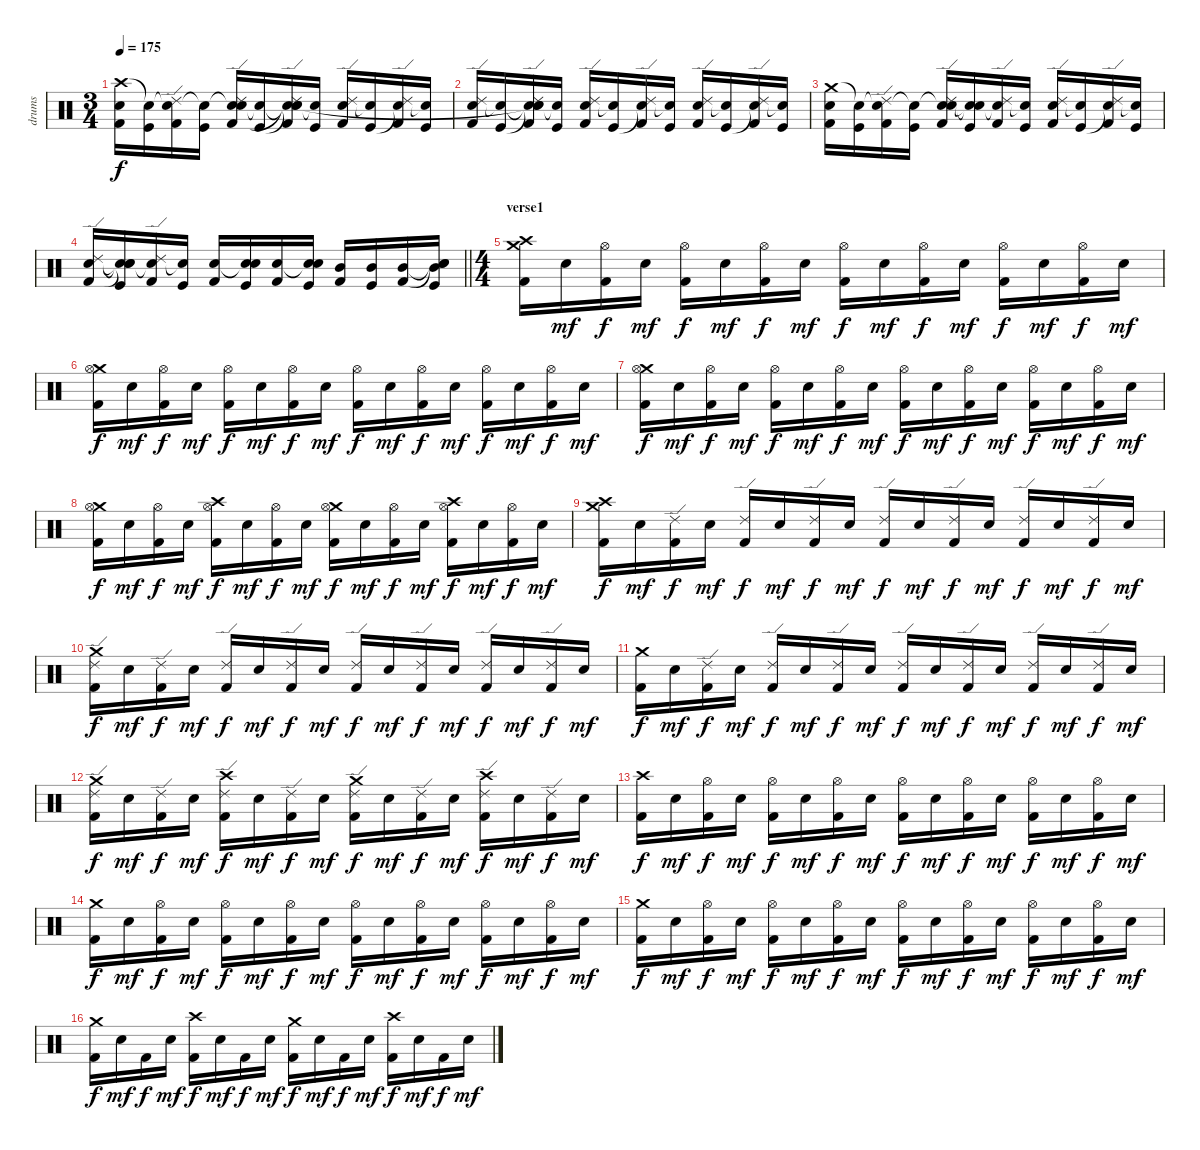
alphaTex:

\track ("drums" "drums") {instrument percussion}
\staff {score}
\articulation defaults
\ts (3 4)
\tempo 175
\clef neutral
\ks c
("Crash high (hit)" "Snare (hit) 2" "Kick (hit) 2").16{dy f} ("Snare (hit)"{t} "Kick (hit)").16 ("Snare (hit)"{t} "Ride (edge) 2" "Kick (hit) 2").16 ("Snare (hit)"{t} "Kick (hit)").16 ("Snare (hit)"{t} "Ride (edge) 2" "Snare (hit) 2" "Kick (hit) 2").16 ("Snare (hit)"{t} "Kick (hit)").16 ("Snare (hit)"{t} "Snare (hit)"{t} "Ride (edge) 2" "Snare (hit)"{t} "Kick (hit) 2").16 ("Snare (hit)"{t} "Kick (hit)").16 ("Ride (edge) 2" "Snare (hit) 2" "Kick (hit) 2").16 ("Snare (hit)"{t} "Kick (hit)").16 ("Ride (edge) 2" "Snare (hit)"{t} "Kick (hit) 2").16 ("Snare (hit)"{t} "Kick (hit)").16 |
("Ride (edge) 2" "Snare (hit) 2" "Kick (hit) 2").16 ("Snare (hit)"{t} "Kick (hit)").16 ("Snare (hit)"{t} "Snare (hit)"{t} "Ride (edge) 2" "Snare (hit)"{t} "Kick (hit) 2").16 ("Snare (hit)"{t} "Kick (hit)").16 ("Ride (edge) 2" "Snare (hit) 2" "Kick (hit) 2").16 ("Snare (hit)"{t} "Kick (hit)").16 ("Ride (edge) 2" "Snare (hit)"{t} "Kick (hit) 2").16 ("Snare (hit)"{t} "Kick (hit)").16 ("Ride (edge) 2" "Snare (hit) 2" "Kick (hit) 2").16 ("Snare (hit)"{t} "Kick (hit)").16 ("Ride (edge) 2" "Snare (hit)"{t} "Kick (hit) 2").16 ("Snare (hit)"{t} "Kick (hit)").16 |
("Crash medium (hit)" "Snare (hit) 2" "Kick (hit) 2").16 ("Snare (hit)"{t} "Kick (hit)").16 ("Snare (hit)"{t} "Ride (edge) 2" "Kick (hit) 2").16 ("Snare (hit)"{t} "Kick (hit)").16 ("Snare (hit)"{t} "Ride (edge) 2" "Snare (hit) 2" "Kick (hit) 2").16 ("Snare (hit)"{t} "Snare (hit)"{t} "Kick (hit)").16 ("Ride (edge) 2" "Snare (hit)"{t} "Kick (hit) 2").16 ("Snare (hit)"{t} "Kick (hit)").16 ("Ride (edge) 2" "Snare (hit) 2" "Kick (hit) 2").16 ("Snare (hit)"{t} "Kick (hit)").16 ("Ride (edge) 2" "Snare (hit)"{t} "Kick (hit) 2").16 ("Snare (hit)"{t} "Kick (hit)").16 |
\barLineRight lightlight
("Ride (edge) 2" "Snare (hit) 2" "Kick (hit) 2").16 ("Snare (hit)"{t} "Snare (hit)"{t} "Snare (hit)"{t} "Kick (hit)").16 ("Ride (edge) 2" "Snare (hit)"{t} "Kick (hit) 2").16 ("Snare (hit)"{t} "Kick (hit)").16 ("Snare (hit) 2" "Kick (hit) 2").16 ("Snare (hit)"{t} "Snare (hit) 2" "Kick (hit)").16 ("Snare (hit) 2" "Kick (hit) 2").16 ("Snare (hit)"{t} "Snare (hit) 2" "Kick (hit)").16 ("Mid Tom (hit)" "Kick (hit) 2").16 ("Mid Tom (hit)" "Kick (hit)").16 ("Mid Tom (hit)" "Kick (hit) 2").16 ("Snare (hit)"{t} "Snare (hit)"{t} "Mid Tom (hit)" "Kick (hit)").16 |
\ts (4 4)
\section ("" "verse1")
("Crash high (hit)" "Crash medium (hit)" "Kick (hit) 2").16 "Electric Snare (hit)".16{dy mf} ("Hi-Hat (open)" "Kick (hit) 2").16{dy f} "Electric Snare (hit)".16{dy mf} ("Hi-Hat (open)" "Kick (hit) 2").16{dy f} "Electric Snare (hit)".16{dy mf} ("Hi-Hat (open)" "Kick (hit) 2").16{dy f} "Electric Snare (hit)".16{dy mf} ("Hi-Hat (open)" "Kick (hit) 2").16{dy f} "Electric Snare (hit)".16{dy mf} ("Hi-Hat (open)" "Kick (hit) 2").16{dy f} "Electric Snare (hit)".16{dy mf} ("Hi-Hat (open)" "Kick (hit) 2").16{dy f} "Electric Snare (hit)".16{dy mf} ("Hi-Hat (open)" "Kick (hit) 2").16{dy f} "Electric Snare (hit)".16{dy mf} |
("Crash medium (hit)" "Hi-Hat (open)" "Kick (hit) 2").16{dy f} "Electric Snare (hit)".16{dy mf} ("Hi-Hat (open)" "Kick (hit) 2").16{dy f} "Electric Snare (hit)".16{dy mf} ("Hi-Hat (open)" "Kick (hit) 2").16{dy f} "Electric Snare (hit)".16{dy mf} ("Hi-Hat (open)" "Kick (hit) 2").16{dy f} "Electric Snare (hit)".16{dy mf} ("Hi-Hat (open)" "Kick (hit) 2").16{dy f} "Electric Snare (hit)".16{dy mf} ("Hi-Hat (open)" "Kick (hit) 2").16{dy f} "Electric Snare (hit)".16{dy mf} ("Hi-Hat (open)" "Kick (hit) 2").16{dy f} "Electric Snare (hit)".16{dy mf} ("Hi-Hat (open)" "Kick (hit) 2").16{dy f} "Electric Snare (hit)".16{dy mf} |
("Crash medium (hit)" "Hi-Hat (open)" "Kick (hit) 2").16{dy f} "Electric Snare (hit)".16{dy mf} ("Hi-Hat (open)" "Kick (hit) 2").16{dy f} "Electric Snare (hit)".16{dy mf} ("Hi-Hat (open)" "Kick (hit) 2").16{dy f} "Electric Snare (hit)".16{dy mf} ("Hi-Hat (open)" "Kick (hit) 2").16{dy f} "Electric Snare (hit)".16{dy mf} ("Hi-Hat (open)" "Kick (hit) 2").16{dy f} "Electric Snare (hit)".16{dy mf} ("Hi-Hat (open)" "Kick (hit) 2").16{dy f} "Electric Snare (hit)".16{dy mf} ("Hi-Hat (open)" "Kick (hit) 2").16{dy f} "Electric Snare (hit)".16{dy mf} ("Hi-Hat (open)" "Kick (hit) 2").16{dy f} "Electric Snare (hit)".16{dy mf} |
("Crash medium (hit)" "Hi-Hat (open)" "Kick (hit) 2").16{dy f} "Electric Snare (hit)".16{dy mf} ("Hi-Hat (open)" "Kick (hit) 2").16{dy f} "Electric Snare (hit)".16{dy mf} ("Crash high (hit)" "Hi-Hat (open)" "Kick (hit) 2").16{dy f} "Electric Snare (hit)".16{dy mf} ("Hi-Hat (open)" "Kick (hit) 2").16{dy f} "Electric Snare (hit)".16{dy mf} ("Crash medium (hit)" "Hi-Hat (open)" "Kick (hit) 2").16{dy f} "Electric Snare (hit)".16{dy mf} ("Hi-Hat (open)" "Kick (hit) 2").16{dy f} "Electric Snare (hit)".16{dy mf} ("Crash high (hit)" "Hi-Hat (open)" "Kick (hit) 2").16{dy f} "Electric Snare (hit)".16{dy mf} ("Hi-Hat (open)" "Kick (hit) 2").16{dy f} "Electric Snare (hit)".16{dy mf} |
("Crash high (hit)" "Crash medium (hit)" "Kick (hit) 2").16{dy f} "Electric Snare (hit)".16{dy mf} ("Ride (edge) 2" "Kick (hit) 2").16{dy f} "Electric Snare (hit)".16{dy mf} ("Ride (edge) 2" "Kick (hit) 2").16{dy f} "Electric Snare (hit)".16{dy mf} ("Ride (edge) 2" "Kick (hit) 2").16{dy f} "Electric Snare (hit)".16{dy mf} ("Ride (edge) 2" "Kick (hit) 2").16{dy f} "Electric Snare (hit)".16{dy mf} ("Ride (edge) 2" "Kick (hit) 2").16{dy f} "Electric Snare (hit)".16{dy mf} ("Ride (edge) 2" "Kick (hit) 2").16{dy f} "Electric Snare (hit)".16{dy mf} ("Ride (edge) 2" "Kick (hit) 2").16{dy f} "Electric Snare (hit)".16{dy mf} |
("Crash medium (hit)" "Ride (edge) 2" "Kick (hit) 2").16{dy f} "Electric Snare (hit)".16{dy mf} ("Ride (edge) 2" "Kick (hit) 2").16{dy f} "Electric Snare (hit)".16{dy mf} ("Ride (edge) 2" "Kick (hit) 2").16{dy f} "Electric Snare (hit)".16{dy mf} ("Ride (edge) 2" "Kick (hit) 2").16{dy f} "Electric Snare (hit)".16{dy mf} ("Ride (edge) 2" "Kick (hit) 2").16{dy f} "Electric Snare (hit)".16{dy mf} ("Ride (edge) 2" "Kick (hit) 2").16{dy f} "Electric Snare (hit)".16{dy mf} ("Ride (edge) 2" "Kick (hit) 2").16{dy f} "Electric Snare (hit)".16{dy mf} ("Ride (edge) 2" "Kick (hit) 2").16{dy f} "Electric Snare (hit)".16{dy mf} |
("Crash medium (hit)" "Kick (hit) 2").16{dy f} "Electric Snare (hit)".16{dy mf} ("Ride (edge) 2" "Kick (hit) 2").16{dy f} "Electric Snare (hit)".16{dy mf} ("Ride (edge) 2" "Kick (hit) 2").16{dy f} "Electric Snare (hit)".16{dy mf} ("Ride (edge) 2" "Kick (hit) 2").16{dy f} "Electric Snare (hit)".16{dy mf} ("Ride (edge) 2" "Kick (hit) 2").16{dy f} "Electric Snare (hit)".16{dy mf} ("Ride (edge) 2" "Kick (hit) 2").16{dy f} "Electric Snare (hit)".16{dy mf} ("Ride (edge) 2" "Kick (hit) 2").16{dy f} "Electric Snare (hit)".16{dy mf} ("Ride (edge) 2" "Kick (hit) 2").16{dy f} "Electric Snare (hit)".16{dy mf} |
("Crash medium (hit)" "Ride (edge) 2" "Kick (hit) 2").16{dy f} "Electric Snare (hit)".16{dy mf} ("Ride (edge) 2" "Kick (hit) 2").16{dy f} "Electric Snare (hit)".16{dy mf} ("Crash high (hit)" "Ride (edge) 2" "Kick (hit) 2").16{dy f} "Electric Snare (hit)".16{dy mf} ("Ride (edge) 2" "Kick (hit) 2").16{dy f} "Electric Snare (hit)".16{dy mf} ("Crash medium (hit)" "Ride (edge) 2" "Kick (hit) 2").16{dy f} "Electric Snare (hit)".16{dy mf} ("Ride (edge) 2" "Kick (hit) 2").16{dy f} "Electric Snare (hit)".16{dy mf} ("Crash high (hit)" "Ride (edge) 2" "Kick (hit) 2").16{dy f} "Electric Snare (hit)".16{dy mf} ("Ride (edge) 2" "Kick (hit) 2").16{dy f} "Electric Snare (hit)".16{dy mf} |
("Crash high (hit)" "Kick (hit) 2").16{dy f} "Electric Snare (hit)".16{dy mf} ("Hi-Hat (open)" "Kick (hit) 2").16{dy f} "Electric Snare (hit)".16{dy mf} ("Hi-Hat (open)" "Kick (hit) 2").16{dy f} "Electric Snare (hit)".16{dy mf} ("Hi-Hat (open)" "Kick (hit) 2").16{dy f} "Electric Snare (hit)".16{dy mf} ("Hi-Hat (open)" "Kick (hit) 2").16{dy f} "Electric Snare (hit)".16{dy mf} ("Hi-Hat (open)" "Kick (hit) 2").16{dy f} "Electric Snare (hit)".16{dy mf} ("Hi-Hat (open)" "Kick (hit) 2").16{dy f} "Electric Snare (hit)".16{dy mf} ("Hi-Hat (open)" "Kick (hit) 2").16{dy f} "Electric Snare (hit)".16{dy mf} |
("Crash medium (hit)" "Kick (hit) 2").16{dy f} "Electric Snare (hit)".16{dy mf} ("Hi-Hat (open)" "Kick (hit) 2").16{dy f} "Electric Snare (hit)".16{dy mf} ("Hi-Hat (open)" "Kick (hit) 2").16{dy f} "Electric Snare (hit)".16{dy mf} ("Hi-Hat (open)" "Kick (hit) 2").16{dy f} "Electric Snare (hit)".16{dy mf} ("Hi-Hat (open)" "Kick (hit) 2").16{dy f} "Electric Snare (hit)".16{dy mf} ("Hi-Hat (open)" "Kick (hit) 2").16{dy f} "Electric Snare (hit)".16{dy mf} ("Hi-Hat (open)" "Kick (hit) 2").16{dy f} "Electric Snare (hit)".16{dy mf} ("Hi-Hat (open)" "Kick (hit) 2").16{dy f} "Electric Snare (hit)".16{dy mf} |
("Crash medium (hit)" "Kick (hit) 2").16{dy f} "Electric Snare (hit)".16{dy mf} ("Hi-Hat (open)" "Kick (hit) 2").16{dy f} "Electric Snare (hit)".16{dy mf} ("Hi-Hat (open)" "Kick (hit) 2").16{dy f} "Electric Snare (hit)".16{dy mf} ("Hi-Hat (open)" "Kick (hit) 2").16{dy f} "Electric Snare (hit)".16{dy mf} ("Hi-Hat (open)" "Kick (hit) 2").16{dy f} "Electric Snare (hit)".16{dy mf} ("Hi-Hat (open)" "Kick (hit) 2").16{dy f} "Electric Snare (hit)".16{dy mf} ("Hi-Hat (open)" "Kick (hit) 2").16{dy f} "Electric Snare (hit)".16{dy mf} ("Hi-Hat (open)" "Kick (hit) 2").16{dy f} "Electric Snare (hit)".16{dy mf} |
("Crash medium (hit)" "Kick (hit) 2").16{dy f} "Electric Snare (hit)".16{dy mf} "Kick (hit) 2".16{dy f} "Electric Snare (hit)".16{dy mf} ("Crash high (hit)" "Kick (hit) 2").16{dy f} "Electric Snare (hit)".16{dy mf} "Kick (hit) 2".16{dy f} "Electric Snare (hit)".16{dy mf} ("Crash medium (hit)" "Kick (hit) 2").16{dy f} "Electric Snare (hit)".16{dy mf} "Kick (hit) 2".16{dy f} "Electric Snare (hit)".16{dy mf} ("Crash high (hit)" "Kick (hit) 2").16{dy f} "Electric Snare (hit)".16{dy mf} "Kick (hit) 2".16{dy f} "Electric Snare (hit)".16{dy mf}
